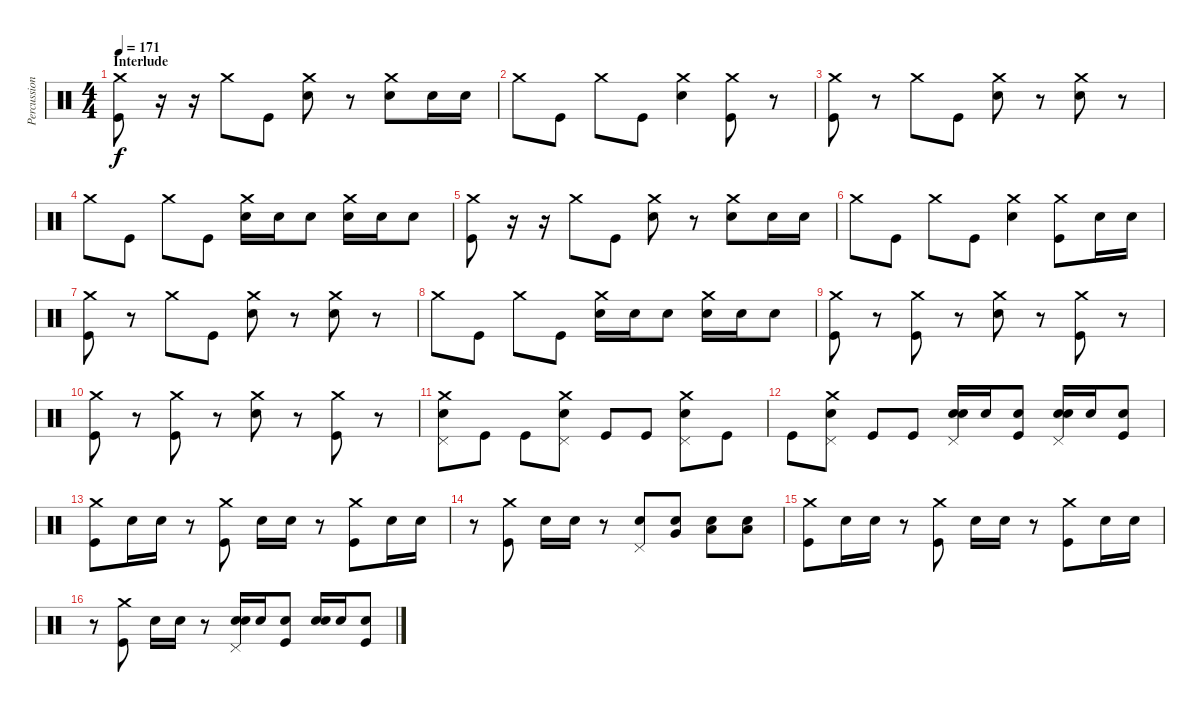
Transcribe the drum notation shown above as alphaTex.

\track ("Percussion" "Percussion") {instrument percussion}
\staff {score}
\articulation defaults
\ts (4 4)
\section ("" "Interlude")
\tempo 171
\clef neutral
\ks c
("Crash medium (hit)" "Kick (hit)").8{dy f} r.16 r.16 "Crash medium (hit)".8 "Kick (hit)".8 ("Crash medium (hit)" "Electric Snare (hit)").8 r.8 ("Crash medium (hit)" "Electric Snare (hit)").8 "Electric Snare (hit)".16 "Electric Snare (hit)".16 |
"Crash medium (hit)".8 "Kick (hit)".8 "Crash medium (hit)".8 "Kick (hit)".8 ("Crash medium (hit)" "Electric Snare (hit)").4 ("Crash medium (hit)" "Kick (hit)").8 r.8 |
("Crash medium (hit)" "Kick (hit)").8 r.8 "Crash medium (hit)".8 "Kick (hit)".8 ("Crash medium (hit)" "Electric Snare (hit)").8 r.8 ("Crash medium (hit)" "Electric Snare (hit)").8 r.8 |
"Crash medium (hit)".8 "Kick (hit)".8 "Crash medium (hit)".8 "Kick (hit)".8 ("Crash medium (hit)" "Electric Snare (hit)").16 "Electric Snare (hit)".16 "Electric Snare (hit)".8 ("Crash medium (hit)" "Electric Snare (hit)").16 "Electric Snare (hit)".16 "Electric Snare (hit)".8 |
("Crash medium (hit)" "Kick (hit)").8 r.16 r.16 "Crash medium (hit)".8 "Kick (hit)".8 ("Crash medium (hit)" "Electric Snare (hit)").8 r.8 ("Crash medium (hit)" "Electric Snare (hit)").8 "Electric Snare (hit)".16 "Electric Snare (hit)".16 |
"Crash medium (hit)".8 "Kick (hit)".8 "Crash medium (hit)".8 "Kick (hit)".8 ("Crash medium (hit)" "Electric Snare (hit)").4 ("Crash medium (hit)" "Kick (hit)").8 "Electric Snare (hit)".16 "Electric Snare (hit)".16 |
("Crash medium (hit)" "Kick (hit)").8 r.8 "Crash medium (hit)".8 "Kick (hit)".8 ("Crash medium (hit)" "Electric Snare (hit)").8 r.8 ("Crash medium (hit)" "Electric Snare (hit)").8 r.8 |
"Crash medium (hit)".8 "Kick (hit)".8 "Crash medium (hit)".8 "Kick (hit)".8 ("Crash medium (hit)" "Electric Snare (hit)").16 "Electric Snare (hit)".16 "Electric Snare (hit)".8 ("Crash medium (hit)" "Electric Snare (hit)").16 "Electric Snare (hit)".16 "Electric Snare (hit)".8 |
("Crash medium (hit)" "Kick (hit)").8 r.8 ("Crash medium (hit)" "Kick (hit)").8 r.8 ("Crash medium (hit)" "Electric Snare (hit)").8 r.8 ("Crash medium (hit)" "Kick (hit)").8 r.8 |
("Crash medium (hit)" "Kick (hit)").8 r.8 ("Crash medium (hit)" "Kick (hit)").8 r.8 ("Crash medium (hit)" "Electric Snare (hit)").8 r.8 ("Crash medium (hit)" "Kick (hit)").8 r.8 |
("Crash medium (hit)" "Electric Snare (hit)" "Pedal Hi-Hat (hit)").8 "Kick (hit)".8 "Kick (hit)".8 ("Crash medium (hit)" "Electric Snare (hit)" "Pedal Hi-Hat (hit)").8 "Kick (hit)".8 "Kick (hit)".8 ("Crash medium (hit)" "Electric Snare (hit)" "Pedal Hi-Hat (hit)").8 "Kick (hit)".8 |
"Kick (hit)".8 ("Crash medium (hit)" "Electric Snare (hit)" "Pedal Hi-Hat (hit)").8 "Kick (hit)".8 "Kick (hit)".8 ("Electric Snare (hit)" "Electric Snare (hit)" "Pedal Hi-Hat (hit)").16 "Electric Snare (hit)".16 ("Electric Snare (hit)" "Kick (hit)").8 ("Electric Snare (hit)" "Electric Snare (hit)" "Pedal Hi-Hat (hit)").16 "Electric Snare (hit)".16 ("Electric Snare (hit)" "Kick (hit)").8 |
("Crash medium (hit)" "Kick (hit)").8 "Electric Snare (hit)".16 "Electric Snare (hit)".16 r.8 ("Crash medium (hit)" "Kick (hit)").8 "Electric Snare (hit)".16 "Electric Snare (hit)".16 r.8 ("Crash medium (hit)" "Kick (hit)").8 "Electric Snare (hit)".16 "Electric Snare (hit)".16 |
r.8 ("Crash medium (hit)" "Kick (hit)").8 "Electric Snare (hit)".16 "Electric Snare (hit)".16 r.8 ("Electric Snare (hit)" "Pedal Hi-Hat (hit)").8 ("Very Low Tom (hit)" "Electric Snare (hit)").8 ("Low Floor Tom (hit)" "Electric Snare (hit)").8 ("Low Floor Tom (hit)" "Electric Snare (hit)").8 |
("Crash medium (hit)" "Kick (hit)").8 "Electric Snare (hit)".16 "Electric Snare (hit)".16 r.8 ("Crash medium (hit)" "Kick (hit)").8 "Electric Snare (hit)".16 "Electric Snare (hit)".16 r.8 ("Crash medium (hit)" "Kick (hit)").8 "Electric Snare (hit)".16 "Electric Snare (hit)".16 |
r.8 ("Crash medium (hit)" "Kick (hit)").8 "Electric Snare (hit)".16 "Electric Snare (hit)".16 r.8 ("Electric Snare (hit)" "Electric Snare (hit)" "Pedal Hi-Hat (hit)").16 "Electric Snare (hit)".16 ("Electric Snare (hit)" "Kick (hit)").8 ("Electric Snare (hit)" "Electric Snare (hit)").16 "Electric Snare (hit)".16 ("Electric Snare (hit)" "Kick (hit)").8
